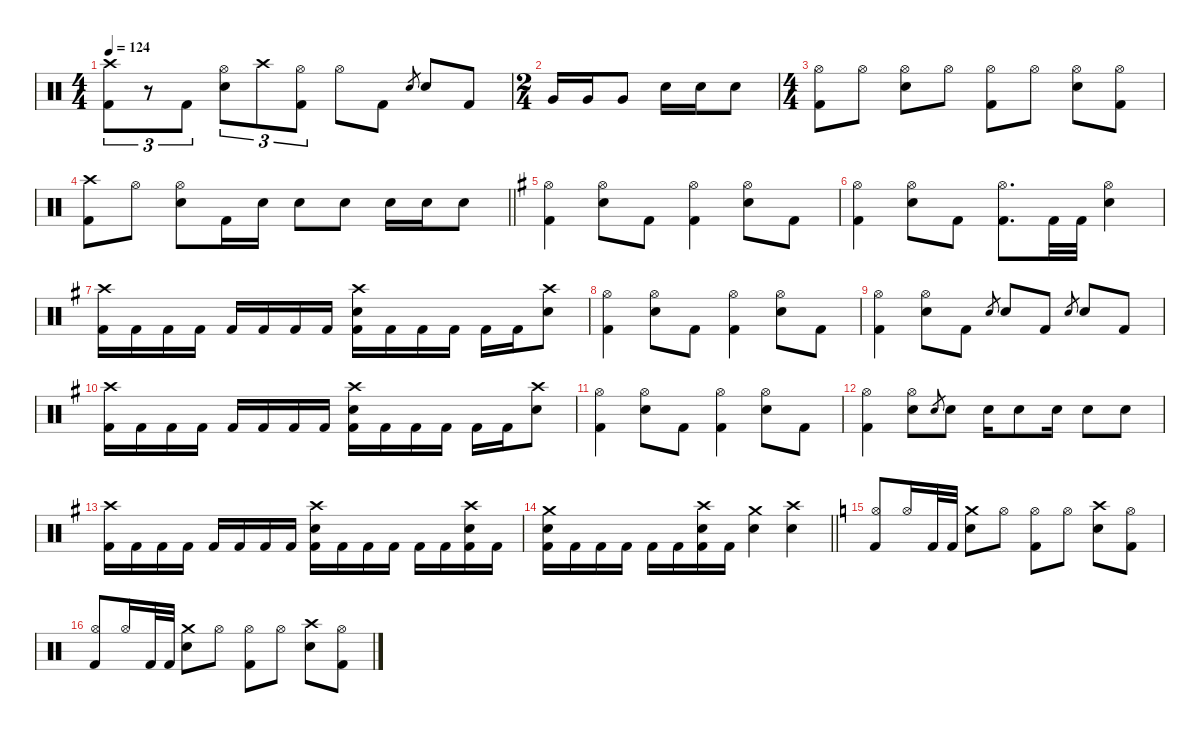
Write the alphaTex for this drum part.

\defaultSystemsLayout 4
\hideDynamics
\bracketExtendMode nobrackets
\singleTrackTrackNamePolicy hidden
\multiTrackTrackNamePolicy hidden
\otherSystemsTrackNameOrientation horizontal
\track ("Drums" "drm.") {defaultSystemsLayout 4 instrument percussion}
\staff {score}
\articulation defaults
\ts (4 4)
\tempo 124
\clef neutral
\ks c
("Crash high (hit)" "Kick (hit) 2").8{tu (3 2) dy mf beam Down} r.8{tu (3 2) beam Down} "Kick (hit) 2".8{tu (3 2) dy ff beam Down} ("Hi-Hat (open)" "Snare (hit) 2").8{tu (3 2) dy mf beam Down} "Crash high (hit)".8{tu (3 2) dy ppp beam Down} ("Hi-Hat (open)" "Kick (hit) 2").8{tu (3 2) dy mf beam Down} "Hi-Hat (open)".8{dy ppp beam Down} "Kick (hit) 2".8{dy ff beam Down} "Electric Snare (hit)".8{gr dy mp beam Up} "Snare (hit) 2".8{dy ff beam Up} "Kick (hit) 2".8{beam Up} |
\ts (2 4)
\beaming (8 2 2)
"Very Low Tom (hit)".16{dy f beam Up} "Very Low Tom (hit)".16{beam Up} "Very Low Tom (hit)".8{beam Up} "Snare (hit) 2".16{dy ff beam Down} "Snare (hit) 2".16{beam Down} "Snare (hit) 2".8{beam Down} |
\ts (4 4)
\beaming (8 2 2 2 2)
("Hi-Hat (open)" "Kick (hit) 2").8{dy mf beam Down} "Hi-Hat (open)".8{beam Down} ("Hi-Hat (open)" "Snare (hit) 2").8{beam Down} "Hi-Hat (open)".8{beam Down} ("Hi-Hat (open)" "Kick (hit) 2").8{beam Down} "Hi-Hat (open)".8{beam Down} ("Hi-Hat (open)" "Snare (hit) 2").8{beam Down} ("Hi-Hat (open)" "Kick (hit) 2").8{beam Down} |
\barLineRight lightlight
("Crash high (hit)" "Kick (hit) 2").8{beam Down} "Hi-Hat (open)".8{beam Down} ("Hi-Hat (open)" "Snare (hit) 2").8{beam Down} "Kick (hit) 2".16{dy ff beam Down} "Snare (hit) 2".16{beam Down} "Snare (hit) 2".8{beam Down} "Snare (hit) 2".8{beam Down} "Snare (hit) 2".16{beam Down} "Snare (hit) 2".16{beam Down} "Snare (hit) 2".8{beam Down} |
\ks g
("Hi-Hat (open)"{acc forcenatural} "Kick (hit) 2"{acc forcenatural}).4{dy mf beam Down} ("Hi-Hat (open)"{acc forcenatural} "Snare (hit) 2"{acc forcenatural}).8{beam Down} "Kick (hit) 2"{acc forcenatural}.8{dy ff beam Down} ("Hi-Hat (open)"{acc forcenatural} "Kick (hit) 2"{acc forcenatural}).4{dy mf beam Down} ("Hi-Hat (open)"{acc forcenatural} "Snare (hit) 2"{acc forcenatural}).8{beam Down} "Kick (hit) 2"{acc forcenatural}.8{dy ff beam Down} |
("Hi-Hat (open)"{acc forcenatural} "Kick (hit) 2"{acc forcenatural}).4{dy mf beam Down} ("Hi-Hat (open)"{acc forcenatural} "Snare (hit) 2"{acc forcenatural}).8{beam Down} "Kick (hit) 2"{acc forcenatural}.8{dy ff beam Down} ("Hi-Hat (open)"{acc forcenatural} "Kick (hit) 2"{acc forcenatural}).8{d dy mf beam Down} "Kick (hit) 2"{acc forcenatural}.32{dy ff beam Down} "Kick (hit) 2"{acc forcenatural}.32{beam Down} ("Hi-Hat (open)"{acc forcenatural} "Snare (hit) 2"{acc forcenatural}).4{dy mf beam Down} |
("Crash high (hit)"{acc forcenatural} "Kick (hit) 2"{acc forcenatural}).16{beam Down} "Kick (hit) 2"{acc forcenatural}.16{dy ff beam Down} "Kick (hit) 2"{acc forcenatural}.16{beam Down} "Kick (hit) 2"{acc forcenatural}.16{beam Down} "Kick (hit) 2"{acc forcenatural}.16{beam Up} "Kick (hit) 2"{acc forcenatural}.16{beam Up} "Kick (hit) 2"{acc forcenatural}.16{beam Up} "Kick (hit) 2"{acc forcenatural}.16{beam Up} ("Crash high (hit)"{acc forcenatural} "Snare (hit) 2"{acc forcenatural} "Kick (hit) 2"{acc forcenatural}).16{dy mf beam Down} "Kick (hit) 2"{acc forcenatural}.16{dy ff beam Down} "Kick (hit) 2"{acc forcenatural}.16{beam Down} "Kick (hit) 2"{acc forcenatural}.16{beam Down} "Kick (hit) 2"{acc forcenatural}.16{beam Down} "Kick (hit) 2"{acc forcenatural}.16{beam Down} ("Crash high (hit)"{acc forcenatural} "Snare (hit) 2"{acc forcenatural}).8{dy mf beam Down} |
("Hi-Hat (open)"{acc forcenatural} "Kick (hit) 2"{acc forcenatural}).4{beam Down} ("Hi-Hat (open)"{acc forcenatural} "Snare (hit) 2"{acc forcenatural}).8{beam Down} "Kick (hit) 2"{acc forcenatural}.8{dy ff beam Down} ("Hi-Hat (open)"{acc forcenatural} "Kick (hit) 2"{acc forcenatural}).4{dy mf beam Down} ("Hi-Hat (open)"{acc forcenatural} "Snare (hit) 2"{acc forcenatural}).8{beam Down} "Kick (hit) 2"{acc forcenatural}.8{dy ff beam Down} |
("Hi-Hat (open)"{acc forcenatural} "Kick (hit) 2"{acc forcenatural}).4{dy mf beam Down} ("Hi-Hat (open)"{acc forcenatural} "Snare (hit) 2"{acc forcenatural}).8{beam Down} "Kick (hit) 2"{acc forcenatural}.8{dy ff beam Down} "Electric Snare (hit)"{acc forcenatural}.8{gr dy mp beam Up} "Snare (hit) 2"{acc forcenatural}.8{dy ff beam Up} "Kick (hit) 2"{acc forcenatural}.8{beam Up} "Electric Snare (hit)"{acc forcenatural}.8{gr dy mp beam Up} "Snare (hit) 2"{acc forcenatural}.8{dy ff beam Up} "Kick (hit) 2"{acc forcenatural}.8{beam Up} |
("Crash high (hit)"{acc forcenatural} "Kick (hit) 2"{acc forcenatural}).16{dy mf beam Down} "Kick (hit) 2"{acc forcenatural}.16{dy ff beam Down} "Kick (hit) 2"{acc forcenatural}.16{beam Down} "Kick (hit) 2"{acc forcenatural}.16{beam Down} "Kick (hit) 2"{acc forcenatural}.16{beam Up} "Kick (hit) 2"{acc forcenatural}.16{beam Up} "Kick (hit) 2"{acc forcenatural}.16{beam Up} "Kick (hit) 2"{acc forcenatural}.16{beam Up} ("Crash high (hit)"{acc forcenatural} "Snare (hit) 2"{acc forcenatural} "Kick (hit) 2"{acc forcenatural}).16{dy mf beam Down} "Kick (hit) 2"{acc forcenatural}.16{dy ff beam Down} "Kick (hit) 2"{acc forcenatural}.16{beam Down} "Kick (hit) 2"{acc forcenatural}.16{beam Down} "Kick (hit) 2"{acc forcenatural}.16{beam Down} "Kick (hit) 2"{acc forcenatural}.16{beam Down} ("Crash high (hit)"{acc forcenatural} "Snare (hit) 2"{acc forcenatural}).8{dy mp beam Down} |
("Hi-Hat (open)"{acc forcenatural} "Kick (hit) 2"{acc forcenatural}).4{beam Down} ("Hi-Hat (open)"{acc forcenatural} "Snare (hit) 2"{acc forcenatural}).8{beam Down} "Kick (hit) 2"{acc forcenatural}.8{dy ff beam Down} ("Hi-Hat (open)"{acc forcenatural} "Kick (hit) 2"{acc forcenatural}).4{dy mp beam Down} ("Hi-Hat (open)"{acc forcenatural} "Snare (hit) 2"{acc forcenatural}).8{beam Down} "Kick (hit) 2"{acc forcenatural}.8{dy ff beam Down} |
("Hi-Hat (open)"{acc forcenatural} "Kick (hit) 2"{acc forcenatural}).4{dy mp beam Down} ("Hi-Hat (open)"{acc forcenatural} "Snare (hit) 2"{acc forcenatural}).8{beam Down} "Electric Snare (hit)"{acc forcenatural}.8{gr dy mf beam Up} "Snare (hit) 2"{acc forcenatural}.8{dy ff beam Down} "Snare (hit) 2"{acc forcenatural}.16{beam Down} "Snare (hit) 2"{acc forcenatural}.8{beam Down} "Snare (hit) 2"{acc forcenatural}.16{beam Down} "Snare (hit) 2"{acc forcenatural}.8{beam Down} "Snare (hit) 2"{acc forcenatural}.8{beam Down} |
("Crash high (hit)"{acc forcenatural} "Kick (hit) 2"{acc forcenatural}).16{dy mp beam Down} "Kick (hit) 2"{acc forcenatural}.16{dy ff beam Down} "Kick (hit) 2"{acc forcenatural}.16{beam Down} "Kick (hit) 2"{acc forcenatural}.16{beam Down} "Kick (hit) 2"{acc forcenatural}.16{beam Up} "Kick (hit) 2"{acc forcenatural}.16{beam Up} "Kick (hit) 2"{acc forcenatural}.16{beam Up} "Kick (hit) 2"{acc forcenatural}.16{beam Up} ("Crash high (hit)"{acc forcenatural} "Snare (hit) 2"{acc forcenatural} "Kick (hit) 2"{acc forcenatural}).16{dy mp beam Down} "Kick (hit) 2"{acc forcenatural}.16{dy ff beam Down} "Kick (hit) 2"{acc forcenatural}.16{beam Down} "Kick (hit) 2"{acc forcenatural}.16{beam Down} "Kick (hit) 2"{acc forcenatural}.16{beam Down} "Kick (hit) 2"{acc forcenatural}.16{beam Down} ("Crash high (hit)"{acc forcenatural} "Snare (hit) 2"{acc forcenatural} "Kick (hit) 2"{acc forcenatural}).16{dy mp beam Down} "Kick (hit) 2"{acc forcenatural}.16{dy ff beam Down} |
\barLineRight lightlight
("Crash medium (hit)"{acc forcenatural} "Snare (hit) 2"{acc forcenatural} "Kick (hit) 2"{acc forcenatural}).16{dy mp beam Down} "Kick (hit) 2"{acc forcenatural}.16{dy ff beam Down} "Kick (hit) 2"{acc forcenatural}.16{beam Down} "Kick (hit) 2"{acc forcenatural}.16{beam Down} "Kick (hit) 2"{acc forcenatural}.16{beam Down} "Kick (hit) 2"{acc forcenatural}.16{beam Down} ("Crash high (hit)"{acc forcenatural} "Snare (hit) 2"{acc forcenatural} "Kick (hit) 2"{acc forcenatural}).16{dy mp beam Down} "Kick (hit) 2"{acc forcenatural}.16{dy ff beam Down} ("Crash medium (hit)"{acc forcenatural} "Snare (hit) 2"{acc forcenatural}).4{dy mp beam Down} ("Crash high (hit)"{acc forcenatural} "Snare (hit) 2"{acc forcenatural}).4{beam Down} |
\ks c
("Hi-Hat (open)" "Kick (hit) 2").8{beam Up} "Hi-Hat (open)".16{beam Up} "Kick (hit) 2".32{dy ff beam Up} "Kick (hit) 2".32{beam Up} ("Crash medium (hit)" "Snare (hit) 2").8{dy mf beam Down} "Hi-Hat (open)".8{beam Down} ("Hi-Hat (open)" "Kick (hit) 2").8{beam Down} "Hi-Hat (open)".8{beam Down} ("Crash high (hit)" "Snare (hit) 2").8{beam Down} ("Hi-Hat (open)" "Kick (hit) 2").8{beam Down} |
("Hi-Hat (open)" "Kick (hit) 2").8{beam Up} "Hi-Hat (open)".16{beam Up} "Kick (hit) 2".32{dy ff beam Up} "Kick (hit) 2".32{beam Up} ("Crash medium (hit)" "Snare (hit) 2").8{dy mf beam Down} "Hi-Hat (open)".8{beam Down} ("Hi-Hat (open)" "Kick (hit) 2").8{beam Down} "Hi-Hat (open)".8{beam Down} ("Crash high (hit)" "Snare (hit) 2").8{beam Down} ("Hi-Hat (open)" "Kick (hit) 2").8{beam Down}
